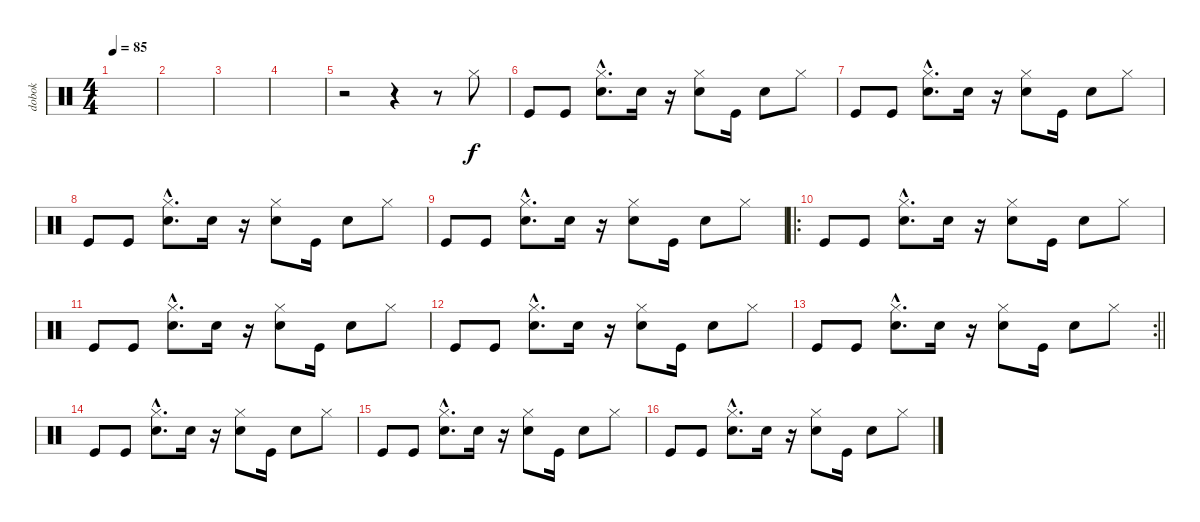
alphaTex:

\track ("dobok" "dobok") {instrument percussion}
\staff {score}
\articulation defaults
\ts (4 4)
\tempo 85
\clef neutral
\ks c
|
|
|
|
r.2 r.4 r.8 "Hi-Hat (closed)".8 |
"Kick (hit)".8 "Kick (hit)".8 ("Hi-Hat (closed)"{hac} "Electric Snare (hit)"{hac}).8{d} "Electric Snare (hit)".16 r.16 ("Hi-Hat (closed)" "Electric Snare (hit)").8 "Kick (hit)".16 "Electric Snare (hit)".8 "Hi-Hat (closed)".8 |
"Kick (hit)".8 "Kick (hit)".8 ("Hi-Hat (closed)"{hac} "Electric Snare (hit)"{hac}).8{d} "Electric Snare (hit)".16 r.16 ("Hi-Hat (closed)" "Electric Snare (hit)").8 "Kick (hit)".16 "Electric Snare (hit)".8 "Hi-Hat (closed)".8 |
"Kick (hit)".8 "Kick (hit)".8 ("Hi-Hat (closed)"{hac} "Electric Snare (hit)"{hac}).8{d} "Electric Snare (hit)".16 r.16 ("Hi-Hat (closed)" "Electric Snare (hit)").8 "Kick (hit)".16 "Electric Snare (hit)".8 "Hi-Hat (closed)".8 |
"Kick (hit)".8 "Kick (hit)".8 ("Hi-Hat (closed)"{hac} "Electric Snare (hit)"{hac}).8{d} "Electric Snare (hit)".16 r.16 ("Hi-Hat (closed)" "Electric Snare (hit)").8 "Kick (hit)".16 "Electric Snare (hit)".8 "Hi-Hat (closed)".8 |
\ro "Kick (hit)".8 "Kick (hit)".8
("Hi-Hat (closed)"{hac} "Electric Snare (hit)"{hac}).8{d} "Electric Snare (hit)".16 r.16 ("Hi-Hat (closed)" "Electric Snare (hit)").8 "Kick (hit)".16 "Electric Snare (hit)".8 "Hi-Hat (closed)".8 |
"Kick (hit)".8 "Kick (hit)".8 ("Hi-Hat (closed)"{hac} "Electric Snare (hit)"{hac}).8{d} "Electric Snare (hit)".16 r.16 ("Hi-Hat (closed)" "Electric Snare (hit)").8 "Kick (hit)".16 "Electric Snare (hit)".8 "Hi-Hat (closed)".8 |
"Kick (hit)".8 "Kick (hit)".8 ("Hi-Hat (closed)"{hac} "Electric Snare (hit)"{hac}).8{d} "Electric Snare (hit)".16 r.16 ("Hi-Hat (closed)" "Electric Snare (hit)").8 "Kick (hit)".16 "Electric Snare (hit)".8 "Hi-Hat (closed)".8 |
\rc 2
\barLineRight lightlight "Kick (hit)".8 "Kick (hit)".8
("Hi-Hat (closed)"{hac} "Electric Snare (hit)"{hac}).8{d} "Electric Snare (hit)".16 r.16 ("Hi-Hat (closed)" "Electric Snare (hit)").8 "Kick (hit)".16 "Electric Snare (hit)".8 "Hi-Hat (closed)".8 |
"Kick (hit)".8 "Kick (hit)".8 ("Hi-Hat (closed)"{hac} "Electric Snare (hit)"{hac}).8{d} "Electric Snare (hit)".16 r.16 ("Hi-Hat (closed)" "Electric Snare (hit)").8 "Kick (hit)".16 "Electric Snare (hit)".8 "Hi-Hat (closed)".8 |
"Kick (hit)".8 "Kick (hit)".8 ("Hi-Hat (closed)"{hac} "Electric Snare (hit)"{hac}).8{d} "Electric Snare (hit)".16 r.16 ("Hi-Hat (closed)" "Electric Snare (hit)").8 "Kick (hit)".16 "Electric Snare (hit)".8 "Hi-Hat (closed)".8 |
"Kick (hit)".8 "Kick (hit)".8 ("Hi-Hat (closed)"{hac} "Electric Snare (hit)"{hac}).8{d} "Electric Snare (hit)".16 r.16 ("Hi-Hat (closed)" "Electric Snare (hit)").8 "Kick (hit)".16 "Electric Snare (hit)".8 "Hi-Hat (closed)".8
